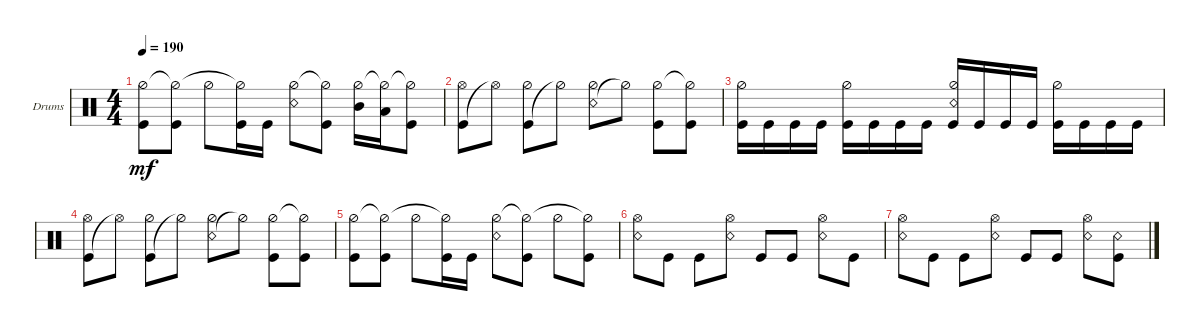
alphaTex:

\defaultSystemsLayout 4
\bracketExtendMode groupsimilarinstruments
\firstSystemTrackNameOrientation horizontal
\otherSystemsTrackNameOrientation horizontal
\track ("Drumkit" "Drums") {instrument percussion}
\staff {score}
\articulation defaults
\ts (4 4)
\tempo 190
\clef neutral
\scale
1.02648
\ks c
("Kick (hit)" "Hi-Hat (half)").8{dy mf} ("Kick (hit)" "Hi-Hat (half)"{t}).8 "Hi-Hat (half)".8 ("Kick (hit)" "Hi-Hat (half)"{t}).16 "Kick (hit)".16 ("Snare (rim shot)" "Hi-Hat (half)").8 ("Kick (hit)" "Hi-Hat (half)"{t}).8 ("Mid Tom (hit)" "Hi-Hat (half)").16 ("Low Tom (hit)" "Hi-Hat (half)"{t}).16 ("Kick (hit)" "Hi-Hat (half)"{t}).8 |
\scale
0.973518 ("Kick (hit)" "Hi-Hat (open)").8 "Hi-Hat (open)"{t}.8 ("Kick (hit)" "Hi-Hat (half)").8 "Hi-Hat (half)"{t}.8 ("Snare (rim shot)" "Hi-Hat (half)").8 "Hi-Hat (half)"{t}.8 ("Kick (hit)" "Hi-Hat (half)").8 ("Kick (hit)" "Hi-Hat (half)"{t}).8 |
\scale
1.02648 ("Kick (hit)" "Hi-Hat (half)").16 "Kick (hit)".16 "Kick (hit)".16 "Kick (hit)".16 ("Kick (hit)" "Hi-Hat (half)").16 "Kick (hit)".16 "Kick (hit)".16 "Kick (hit)".16 ("Kick (hit)" "Hi-Hat (half)" "Snare (rim shot)").16 "Kick (hit)".16 "Kick (hit)".16 "Kick (hit)".16 ("Kick (hit)" "Hi-Hat (half)").16 "Kick (hit)".16 "Kick (hit)".16 "Kick (hit)".16 |
\scale
0.973518 ("Kick (hit)" "Hi-Hat (open)").8 "Hi-Hat (open)"{t}.8 ("Kick (hit)" "Hi-Hat (half)").8 "Hi-Hat (half)"{t}.8 ("Snare (rim shot)" "Hi-Hat (half)").8 "Hi-Hat (half)"{t}.8 ("Kick (hit)" "Hi-Hat (half)").8 ("Kick (hit)" "Hi-Hat (half)"{t}).8 |
\scale
1.02648 ("Kick (hit)" "Hi-Hat (half)").8 ("Kick (hit)" "Hi-Hat (half)"{t}).8 "Hi-Hat (half)".8 ("Kick (hit)" "Hi-Hat (half)"{t}).16 "Kick (hit)".16 ("Snare (rim shot)" "Hi-Hat (half)").8 ("Kick (hit)" "Hi-Hat (half)"{t}).8 "Hi-Hat (half)".8 ("Kick (hit)" "Hi-Hat (half)"{t}).8 |
\scale
0.973518 ("Snare (rim shot)" "Hi-Hat (open)").8 "Kick (hit)".8 "Kick (hit)".8 ("Snare (rim shot)" "Hi-Hat (open)").8 "Kick (hit)".8 "Kick (hit)".8 ("Snare (rim shot)" "Hi-Hat (open)").8 "Kick (hit)".8 |
\scale
1.02648 ("Snare (rim shot)" "Hi-Hat (open)").8 "Kick (hit)".8 "Kick (hit)".8 ("Snare (rim shot)" "Hi-Hat (open)").8 "Kick (hit)".8 "Kick (hit)".8 ("Snare (rim shot)" "Hi-Hat (open)").8 ("Kick (hit)" "Snare (rim shot)").8
